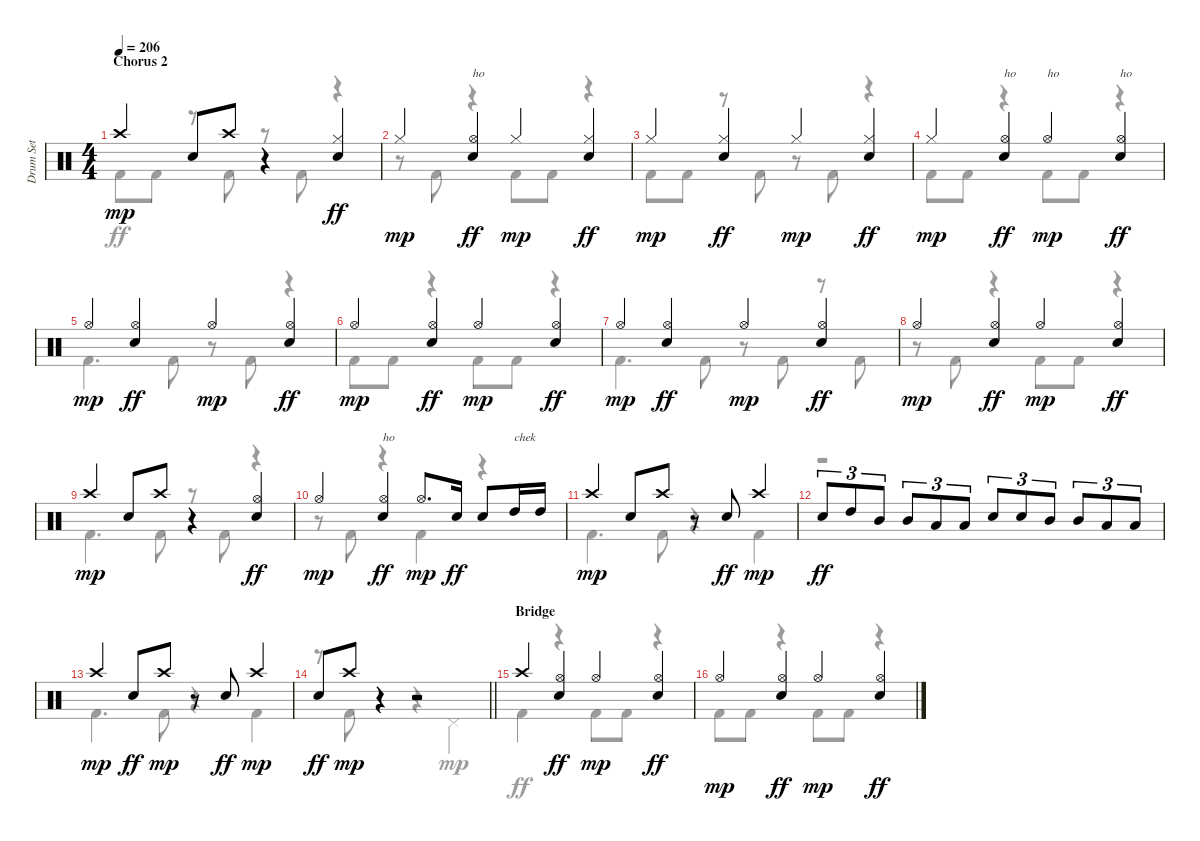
\track ("Drum Set" "Drum Set") {instrument percussion}
\staff {score}
\articulation defaults
\voice
\ts (4 4)
\section ("" "Chorus 2")
\tempo 206
\clef neutral
\ks c "Crash high (hit)".4{dy mp} "Electric Snare (hit)".8 "Crash high (hit)".8
r.4 ("Hi-Hat (closed)" "Electric Snare (hit)").4{dy ff} |
"Hi-Hat (closed)".4{dy mp} ("Hi-Hat (open)" "Electric Snare (hit)").4{txt "ho" dy ff} "Hi-Hat (closed)".4{dy mp} ("Hi-Hat (closed)" "Electric Snare (hit)").4{dy ff} |
"Hi-Hat (closed)".4{dy mp} ("Hi-Hat (closed)" "Electric Snare (hit)").4{dy ff} "Hi-Hat (closed)".4{dy mp} ("Hi-Hat (closed)" "Electric Snare (hit)").4{dy ff} |
"Hi-Hat (closed)".4{dy mp} ("Hi-Hat (open)" "Electric Snare (hit)").4{txt "ho" dy ff} "Hi-Hat (open)".4{txt "ho" dy mp} ("Hi-Hat (open)" "Electric Snare (hit)").4{txt "ho" dy ff} |
"Hi-Hat (open)".4{dy mp} ("Hi-Hat (open)" "Electric Snare (hit)").4{dy ff} "Hi-Hat (open)".4{dy mp} ("Hi-Hat (open)" "Electric Snare (hit)").4{dy ff} |
"Hi-Hat (open)".4{dy mp} ("Hi-Hat (open)" "Electric Snare (hit)").4{dy ff} "Hi-Hat (open)".4{dy mp} ("Hi-Hat (open)" "Electric Snare (hit)").4{dy ff} |
"Hi-Hat (open)".4{dy mp} ("Hi-Hat (open)" "Electric Snare (hit)").4{dy ff} "Hi-Hat (open)".4{dy mp} ("Hi-Hat (open)" "Electric Snare (hit)").4{dy ff} |
"Hi-Hat (open)".4{dy mp} ("Hi-Hat (open)" "Electric Snare (hit)").4{dy ff} "Hi-Hat (open)".4{dy mp} ("Hi-Hat (open)" "Electric Snare (hit)").4{dy ff} |
"Crash high (hit)".4{dy mp} "Electric Snare (hit)".8 "Crash high (hit)".8 r.4 ("Hi-Hat (open)" "Electric Snare (hit)").4{dy ff} |
"Hi-Hat (open)".4{dy mp} ("Hi-Hat (open)" "Electric Snare (hit)").4{txt "ho" dy ff} "Hi-Hat (open)".8{d dy mp} "Electric Snare (hit)".16{dy ff} "Electric Snare (hit)".8 "High Tom (hit)".16{txt "chek"} "High Tom (hit)".16 |
"Crash high (hit)".4{dy mp} "Electric Snare (hit)".8 "Crash high (hit)".8 r.8 "Electric Snare (hit)".8{dy ff} "Crash high (hit)".4{dy mp} |
"Electric Snare (hit)".8{tu (3 2) dy ff beam Up} "High Tom (hit)".8{tu (3 2) beam Up} "Mid Tom (hit)".8{tu (3 2) beam Up} "Mid Tom (hit)".8{tu (3 2) beam Up} "Low Tom (hit)".8{tu (3 2) beam Up} "Low Tom (hit)".8{tu (3 2) beam Up} "Electric Snare (hit)".8{tu (3 2) beam Up} "Electric Snare (hit)".8{tu (3 2) beam Up} "Mid Tom (hit)".8{tu (3 2) beam Up} "Mid Tom (hit)".8{tu (3 2) beam Up} "Low Tom (hit)".8{tu (3 2) beam Up} "Low Tom (hit)".8{tu (3 2) beam Up} |
"Crash high (hit)".4{dy mp} "Electric Snare (hit)".8{dy ff} "Crash high (hit)".8{dy mp} r.8 "Electric Snare (hit)".8{dy ff} "Crash high (hit)".4{dy mp} |
\barLineRight lightlight "Electric Snare (hit)".8{dy ff} "Crash high (hit)".8{dy mp}
r.4 r.2 |
\section ("" "Bridge")
"Crash high (hit)".4 ("Hi-Hat (open)" "Electric Snare (hit)").4{dy ff} "Hi-Hat (open)".4{dy mp} ("Hi-Hat (open)" "Electric Snare (hit)").4{dy ff} |
"Hi-Hat (open)".4{dy mp} ("Hi-Hat (open)" "Electric Snare (hit)").4{dy ff} "Hi-Hat (open)".4{dy mp} ("Hi-Hat (open)" "Electric Snare (hit)").4{dy ff}
\voice
\clef neutral
\ottava regular
\simile none
\ks c "Kick (hit) 2".8{dy ff} "Kick (hit) 2".8
r.8 "Kick (hit) 2".8 r.8 "Kick (hit) 2".8 r.4 |
r.8 "Kick (hit) 2".8 r.4 "Kick (hit) 2".8 "Kick (hit) 2".8 r.4 |
"Kick (hit) 2".8 "Kick (hit) 2".8 r.8 "Kick (hit) 2".8 r.8 "Kick (hit) 2".8 r.4 |
"Kick (hit) 2".8 "Kick (hit) 2".8 r.4 "Kick (hit) 2".8 "Kick (hit) 2".8 r.4 |
"Kick (hit) 2".4{d} "Kick (hit) 2".8 r.8 "Kick (hit) 2".8 r.4 |
"Kick (hit) 2".8 "Kick (hit) 2".8 r.4 "Kick (hit) 2".8 "Kick (hit) 2".8 r.4 |
"Kick (hit) 2".4{d} "Kick (hit) 2".8 r.8 "Kick (hit) 2".8 r.8 "Kick (hit) 2".8 |
r.8 "Kick (hit) 2".8 r.4 "Kick (hit) 2".8 "Kick (hit) 2".8 r.4 |
"Kick (hit) 2".4{d} "Kick (hit) 2".8 r.8 "Kick (hit) 2".8 r.4 |
r.8 "Kick (hit) 2".8 r.4 "Kick (hit) 2".4 r.4 |
"Kick (hit) 2".4{d} "Kick (hit) 2".8 r.4 "Kick (hit) 2".4 |
r.1 |
"Kick (hit) 2".4{d} "Kick (hit) 2".8 r.4 "Kick (hit) 2".4 |
\barLineRight lightlight
r.8 "Kick (hit) 2".8 r.4 r.4 "Pedal Hi-Hat (hit)".4{dy mp} |
"Kick (hit) 2".4{dy ff} r.4 "Kick (hit) 2".8 "Kick (hit) 2".8 r.4 |
"Kick (hit) 2".8 "Kick (hit) 2".8 r.4 "Kick (hit) 2".8 "Kick (hit) 2".8 r.4
